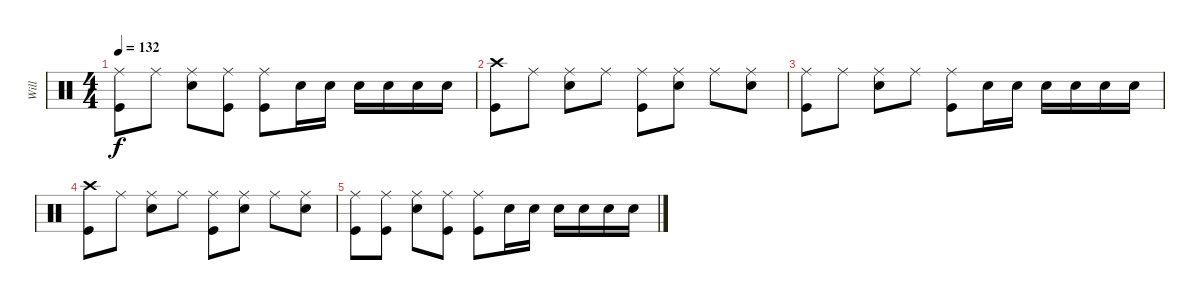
\track ("Will" "Will") {instrument percussion}
\staff {score}
\articulation defaults
\ts (4 4)
\tempo 132
\clef neutral
\ks c
("Ride (middle)" "Kick (hit)").8{dy f} "Ride (middle)".8 ("Ride (middle)" "Snare (hit) 2").8 ("Ride (middle)" "Kick (hit)").8 ("Ride (middle)" "Kick (hit)").8 "Snare (hit) 2".16 "Snare (hit) 2".16 "Snare (hit) 2".16 "Snare (hit) 2".16 "Snare (hit) 2".16 "Snare (hit) 2".16 |
("Crash high (hit)" "Kick (hit)").8 "Ride (middle)".8 ("Ride (middle)" "Snare (hit) 2").8 "Ride (middle)".8 ("Ride (middle)" "Kick (hit)").8 ("Ride (middle)" "Snare (hit) 2").8 "Ride (middle)".8 ("Ride (middle)" "Snare (hit) 2").8 |
("Ride (middle)" "Kick (hit)").8 "Ride (middle)".8 ("Ride (middle)" "Snare (hit) 2").8 "Ride (middle)".8 ("Ride (middle)" "Kick (hit)").8 "Snare (hit) 2".16 "Snare (hit) 2".16 "Snare (hit) 2".16 "Snare (hit) 2".16 "Snare (hit) 2".16 "Snare (hit) 2".16 |
("Crash high (hit)" "Kick (hit)").8 "Ride (middle)".8 ("Ride (middle)" "Snare (hit) 2").8 "Ride (middle)".8 ("Ride (middle)" "Kick (hit)").8 ("Ride (middle)" "Snare (hit) 2").8 "Ride (middle)".8 ("Ride (middle)" "Snare (hit) 2").8 |
("Ride (middle)" "Kick (hit)").8 ("Ride (middle)" "Kick (hit)").8 ("Ride (middle)" "Snare (hit) 2").8 ("Ride (middle)" "Kick (hit)").8 ("Ride (middle)" "Kick (hit)").8 "Snare (hit) 2".16 "Snare (hit) 2".16 "Snare (hit) 2".16 "Snare (hit) 2".16 "Snare (hit) 2".16 "Snare (hit) 2".16
